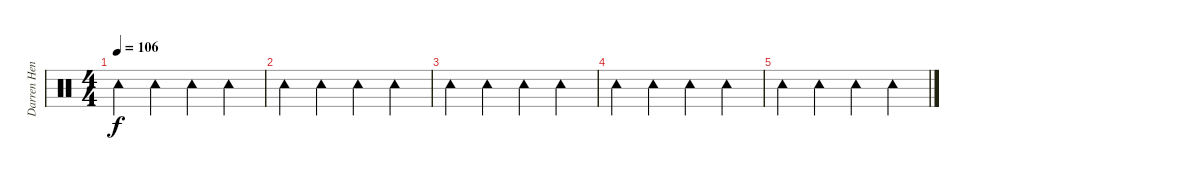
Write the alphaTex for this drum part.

\track ("Darren Henley [Percussion]" "Darren Hen") {instrument percussion}
\staff {score}
\articulation defaults
\ts (4 4)
\tempo 106
\clef neutral
\ks c "Tambourine (hit)".4{dy f} "Tambourine (hit)".4 "Tambourine (hit)".4 "Tambourine (hit)".4
|
"Tambourine (hit)".4 "Tambourine (hit)".4 "Tambourine (hit)".4 "Tambourine (hit)".4 |
"Tambourine (hit)".4 "Tambourine (hit)".4 "Tambourine (hit)".4 "Tambourine (hit)".4 |
"Tambourine (hit)".4 "Tambourine (hit)".4 "Tambourine (hit)".4 "Tambourine (hit)".4 |
"Tambourine (hit)".4 "Tambourine (hit)".4 "Tambourine (hit)".4 "Tambourine (hit)".4
